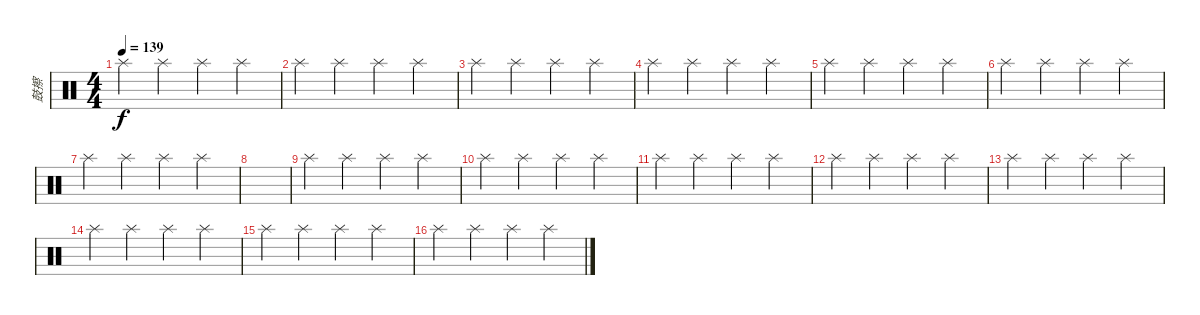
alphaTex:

\track ("鼓擦" "鼓擦") {instrument percussion}
\staff {score}
\articulation defaults
\ts (4 4)
\tempo 139
\clef neutral
\ks c "Splash (hit)".4{dy f} "Splash (hit)".4 "Splash (hit)".4 "Splash (hit)".4
|
"Splash (hit)".4 "Splash (hit)".4 "Splash (hit)".4 "Splash (hit)".4 |
"Splash (hit)".4 "Splash (hit)".4 "Splash (hit)".4 "Splash (hit)".4 |
"Splash (hit)".4 "Splash (hit)".4 "Splash (hit)".4 "Splash (hit)".4 |
"Splash (hit)".4 "Splash (hit)".4 "Splash (hit)".4 "Splash (hit)".4 |
"Splash (hit)".4 "Splash (hit)".4 "Splash (hit)".4 "Splash (hit)".4 |
"Splash (hit)".4 "Splash (hit)".4 "Splash (hit)".4 "Splash (hit)".4 |
|
"Splash (hit)".4 "Splash (hit)".4 "Splash (hit)".4 "Splash (hit)".4 |
"Splash (hit)".4 "Splash (hit)".4 "Splash (hit)".4 "Splash (hit)".4 |
"Splash (hit)".4 "Splash (hit)".4 "Splash (hit)".4 "Splash (hit)".4 |
"Splash (hit)".4 "Splash (hit)".4 "Splash (hit)".4 "Splash (hit)".4 |
"Splash (hit)".4 "Splash (hit)".4 "Splash (hit)".4 "Splash (hit)".4 |
"Splash (hit)".4 "Splash (hit)".4 "Splash (hit)".4 "Splash (hit)".4 |
"Splash (hit)".4 "Splash (hit)".4 "Splash (hit)".4 "Splash (hit)".4 |
"Splash (hit)".4 "Splash (hit)".4 "Splash (hit)".4 "Splash (hit)".4
